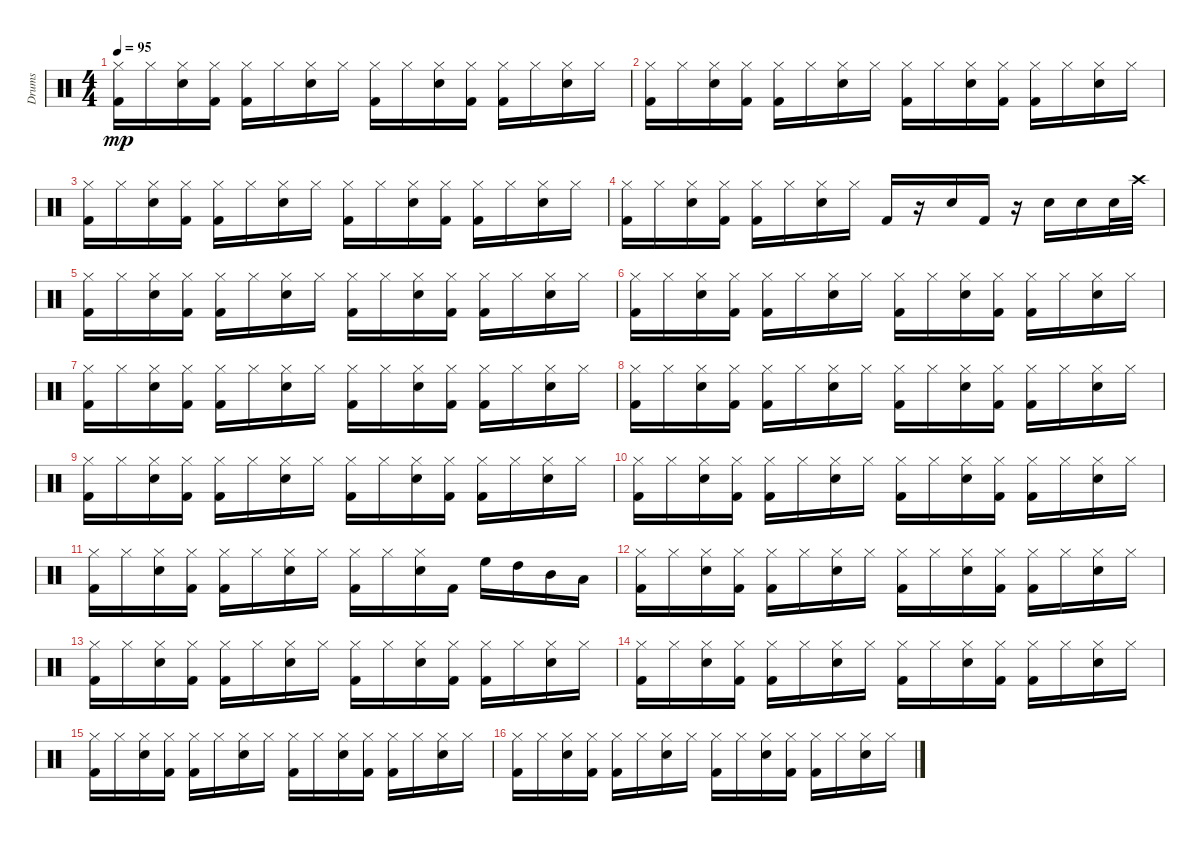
\track ("Drums" "Drums") {instrument percussion}
\staff {score}
\articulation defaults
\ts (4 4)
\tempo 95
\clef neutral
\ks c
("Kick (hit) 2" "Hi-Hat (closed)").16{dy mp} "Hi-Hat (closed)".16 ("Snare (hit) 2" "Hi-Hat (closed)").16 ("Kick (hit) 2" "Hi-Hat (closed)").16 ("Kick (hit) 2" "Hi-Hat (closed)").16 "Hi-Hat (closed)".16 ("Snare (hit) 2" "Hi-Hat (closed)").16 "Hi-Hat (closed)".16 ("Kick (hit) 2" "Hi-Hat (closed)").16 "Hi-Hat (closed)".16 ("Snare (hit) 2" "Hi-Hat (closed)").16 ("Kick (hit) 2" "Hi-Hat (closed)").16 ("Kick (hit) 2" "Hi-Hat (closed)").16 "Hi-Hat (closed)".16 ("Snare (hit) 2" "Hi-Hat (closed)").16 "Hi-Hat (closed)".16 |
("Kick (hit) 2" "Hi-Hat (closed)").16 "Hi-Hat (closed)".16 ("Snare (hit) 2" "Hi-Hat (closed)").16 ("Kick (hit) 2" "Hi-Hat (closed)").16 ("Kick (hit) 2" "Hi-Hat (closed)").16 "Hi-Hat (closed)".16 ("Snare (hit) 2" "Hi-Hat (closed)").16 "Hi-Hat (closed)".16 ("Kick (hit) 2" "Hi-Hat (closed)").16 "Hi-Hat (closed)".16 ("Snare (hit) 2" "Hi-Hat (closed)").16 ("Kick (hit) 2" "Hi-Hat (closed)").16 ("Kick (hit) 2" "Hi-Hat (closed)").16 "Hi-Hat (closed)".16 ("Snare (hit) 2" "Hi-Hat (closed)").16 "Hi-Hat (closed)".16 |
("Kick (hit) 2" "Hi-Hat (closed)").16 "Hi-Hat (closed)".16 ("Snare (hit) 2" "Hi-Hat (closed)").16 ("Kick (hit) 2" "Hi-Hat (closed)").16 ("Kick (hit) 2" "Hi-Hat (closed)").16 "Hi-Hat (closed)".16 ("Snare (hit) 2" "Hi-Hat (closed)").16 "Hi-Hat (closed)".16 ("Kick (hit) 2" "Hi-Hat (closed)").16 "Hi-Hat (closed)".16 ("Snare (hit) 2" "Hi-Hat (closed)").16 ("Kick (hit) 2" "Hi-Hat (closed)").16 ("Kick (hit) 2" "Hi-Hat (closed)").16 "Hi-Hat (closed)".16 ("Snare (hit) 2" "Hi-Hat (closed)").16 "Hi-Hat (closed)".16 |
("Kick (hit) 2" "Hi-Hat (closed)").16 "Hi-Hat (closed)".16 ("Snare (hit) 2" "Hi-Hat (closed)").16 ("Kick (hit) 2" "Hi-Hat (closed)").16 ("Kick (hit) 2" "Hi-Hat (closed)").16 "Hi-Hat (closed)".16 ("Snare (hit) 2" "Hi-Hat (closed)").16 "Hi-Hat (closed)".16 "Kick (hit) 2".16 r.16 "Snare (hit) 2".16 "Kick (hit) 2".16 r.16 "Snare (hit) 2".16 "Snare (hit) 2".16 "Snare (hit) 2".32 "Crash high (hit)".32 |
("Kick (hit) 2" "Hi-Hat (closed)").16 "Hi-Hat (closed)".16 ("Snare (hit) 2" "Hi-Hat (closed)").16 ("Kick (hit) 2" "Hi-Hat (closed)").16 ("Kick (hit) 2" "Hi-Hat (closed)").16 "Hi-Hat (closed)".16 ("Snare (hit) 2" "Hi-Hat (closed)").16 "Hi-Hat (closed)".16 ("Kick (hit) 2" "Hi-Hat (closed)").16 "Hi-Hat (closed)".16 ("Snare (hit) 2" "Hi-Hat (closed)").16 ("Kick (hit) 2" "Hi-Hat (closed)").16 ("Kick (hit) 2" "Hi-Hat (closed)").16 "Hi-Hat (closed)".16 ("Snare (hit) 2" "Hi-Hat (closed)").16 "Hi-Hat (closed)".16 |
("Kick (hit) 2" "Hi-Hat (closed)").16 "Hi-Hat (closed)".16 ("Snare (hit) 2" "Hi-Hat (closed)").16 ("Kick (hit) 2" "Hi-Hat (closed)").16 ("Kick (hit) 2" "Hi-Hat (closed)").16 "Hi-Hat (closed)".16 ("Snare (hit) 2" "Hi-Hat (closed)").16 "Hi-Hat (closed)".16 ("Kick (hit) 2" "Hi-Hat (closed)").16 "Hi-Hat (closed)".16 ("Snare (hit) 2" "Hi-Hat (closed)").16 ("Kick (hit) 2" "Hi-Hat (closed)").16 ("Kick (hit) 2" "Hi-Hat (closed)").16 "Hi-Hat (closed)".16 ("Snare (hit) 2" "Hi-Hat (closed)").16 "Hi-Hat (closed)".16 |
("Kick (hit) 2" "Hi-Hat (closed)").16 "Hi-Hat (closed)".16 ("Snare (hit) 2" "Hi-Hat (closed)").16 ("Kick (hit) 2" "Hi-Hat (closed)").16 ("Kick (hit) 2" "Hi-Hat (closed)").16 "Hi-Hat (closed)".16 ("Snare (hit) 2" "Hi-Hat (closed)").16 "Hi-Hat (closed)".16 ("Kick (hit) 2" "Hi-Hat (closed)").16 "Hi-Hat (closed)".16 ("Snare (hit) 2" "Hi-Hat (closed)").16 ("Kick (hit) 2" "Hi-Hat (closed)").16 ("Kick (hit) 2" "Hi-Hat (closed)").16 "Hi-Hat (closed)".16 ("Snare (hit) 2" "Hi-Hat (closed)").16 "Hi-Hat (closed)".16 |
("Kick (hit) 2" "Hi-Hat (closed)").16 "Hi-Hat (closed)".16 ("Snare (hit) 2" "Hi-Hat (closed)").16 ("Kick (hit) 2" "Hi-Hat (closed)").16 ("Kick (hit) 2" "Hi-Hat (closed)").16 "Hi-Hat (closed)".16 ("Snare (hit) 2" "Hi-Hat (closed)").16 "Hi-Hat (closed)".16 ("Kick (hit) 2" "Hi-Hat (closed)").16 "Hi-Hat (closed)".16 ("Snare (hit) 2" "Hi-Hat (closed)").16 ("Kick (hit) 2" "Hi-Hat (closed)").16 ("Kick (hit) 2" "Hi-Hat (closed)").16 "Hi-Hat (closed)".16 ("Snare (hit) 2" "Hi-Hat (closed)").16 "Hi-Hat (closed)".16 |
("Kick (hit) 2" "Hi-Hat (closed)").16 "Hi-Hat (closed)".16 ("Snare (hit) 2" "Hi-Hat (closed)").16 ("Kick (hit) 2" "Hi-Hat (closed)").16 ("Kick (hit) 2" "Hi-Hat (closed)").16 "Hi-Hat (closed)".16 ("Snare (hit) 2" "Hi-Hat (closed)").16 "Hi-Hat (closed)".16 ("Kick (hit) 2" "Hi-Hat (closed)").16 "Hi-Hat (closed)".16 ("Snare (hit) 2" "Hi-Hat (closed)").16 ("Kick (hit) 2" "Hi-Hat (closed)").16 ("Kick (hit) 2" "Hi-Hat (closed)").16 "Hi-Hat (closed)".16 ("Snare (hit) 2" "Hi-Hat (closed)").16 "Hi-Hat (closed)".16 |
("Kick (hit) 2" "Hi-Hat (closed)").16 "Hi-Hat (closed)".16 ("Snare (hit) 2" "Hi-Hat (closed)").16 ("Kick (hit) 2" "Hi-Hat (closed)").16 ("Kick (hit) 2" "Hi-Hat (closed)").16 "Hi-Hat (closed)".16 ("Snare (hit) 2" "Hi-Hat (closed)").16 "Hi-Hat (closed)".16 ("Kick (hit) 2" "Hi-Hat (closed)").16 "Hi-Hat (closed)".16 ("Snare (hit) 2" "Hi-Hat (closed)").16 ("Kick (hit) 2" "Hi-Hat (closed)").16 ("Kick (hit) 2" "Hi-Hat (closed)").16 "Hi-Hat (closed)".16 ("Snare (hit) 2" "Hi-Hat (closed)").16 "Hi-Hat (closed)".16 |
("Kick (hit) 2" "Hi-Hat (closed)").16 "Hi-Hat (closed)".16 ("Snare (hit) 2" "Hi-Hat (closed)").16 ("Kick (hit) 2" "Hi-Hat (closed)").16 ("Kick (hit) 2" "Hi-Hat (closed)").16 "Hi-Hat (closed)".16 ("Snare (hit) 2" "Hi-Hat (closed)").16 "Hi-Hat (closed)".16 ("Kick (hit) 2" "Hi-Hat (closed)").16 "Hi-Hat (closed)".16 ("Snare (hit) 2" "Hi-Hat (closed)").16 "Kick (hit) 2".16 "High Floor Tom (hit)".16 "High Tom (hit)".16 "Mid Tom (hit)".16 "Low Tom (hit)".16 |
("Kick (hit) 2" "Hi-Hat (closed)").16 "Hi-Hat (closed)".16 ("Snare (hit) 2" "Hi-Hat (closed)").16 ("Kick (hit) 2" "Hi-Hat (closed)").16 ("Kick (hit) 2" "Hi-Hat (closed)").16 "Hi-Hat (closed)".16 ("Snare (hit) 2" "Hi-Hat (closed)").16 "Hi-Hat (closed)".16 ("Kick (hit) 2" "Hi-Hat (closed)").16 "Hi-Hat (closed)".16 ("Snare (hit) 2" "Hi-Hat (closed)").16 ("Kick (hit) 2" "Hi-Hat (closed)").16 ("Kick (hit) 2" "Hi-Hat (closed)").16 "Hi-Hat (closed)".16 ("Snare (hit) 2" "Hi-Hat (closed)").16 "Hi-Hat (closed)".16 |
("Kick (hit) 2" "Hi-Hat (closed)").16 "Hi-Hat (closed)".16 ("Snare (hit) 2" "Hi-Hat (closed)").16 ("Kick (hit) 2" "Hi-Hat (closed)").16 ("Kick (hit) 2" "Hi-Hat (closed)").16 "Hi-Hat (closed)".16 ("Snare (hit) 2" "Hi-Hat (closed)").16 "Hi-Hat (closed)".16 ("Kick (hit) 2" "Hi-Hat (closed)").16 "Hi-Hat (closed)".16 ("Snare (hit) 2" "Hi-Hat (closed)").16 ("Kick (hit) 2" "Hi-Hat (closed)").16 ("Kick (hit) 2" "Hi-Hat (closed)").16 "Hi-Hat (closed)".16 ("Snare (hit) 2" "Hi-Hat (closed)").16 "Hi-Hat (closed)".16 |
("Kick (hit) 2" "Hi-Hat (closed)").16 "Hi-Hat (closed)".16 ("Snare (hit) 2" "Hi-Hat (closed)").16 ("Kick (hit) 2" "Hi-Hat (closed)").16 ("Kick (hit) 2" "Hi-Hat (closed)").16 "Hi-Hat (closed)".16 ("Snare (hit) 2" "Hi-Hat (closed)").16 "Hi-Hat (closed)".16 ("Kick (hit) 2" "Hi-Hat (closed)").16 "Hi-Hat (closed)".16 ("Snare (hit) 2" "Hi-Hat (closed)").16 ("Kick (hit) 2" "Hi-Hat (closed)").16 ("Kick (hit) 2" "Hi-Hat (closed)").16 "Hi-Hat (closed)".16 ("Snare (hit) 2" "Hi-Hat (closed)").16 "Hi-Hat (closed)".16 |
("Kick (hit) 2" "Hi-Hat (closed)").16 "Hi-Hat (closed)".16 ("Snare (hit) 2" "Hi-Hat (closed)").16 ("Kick (hit) 2" "Hi-Hat (closed)").16 ("Kick (hit) 2" "Hi-Hat (closed)").16 "Hi-Hat (closed)".16 ("Snare (hit) 2" "Hi-Hat (closed)").16 "Hi-Hat (closed)".16 ("Kick (hit) 2" "Hi-Hat (closed)").16 "Hi-Hat (closed)".16 ("Snare (hit) 2" "Hi-Hat (closed)").16 ("Kick (hit) 2" "Hi-Hat (closed)").16 ("Kick (hit) 2" "Hi-Hat (closed)").16 "Hi-Hat (closed)".16 ("Snare (hit) 2" "Hi-Hat (closed)").16 "Hi-Hat (closed)".16 |
("Kick (hit) 2" "Hi-Hat (closed)").16 "Hi-Hat (closed)".16 ("Snare (hit) 2" "Hi-Hat (closed)").16 ("Kick (hit) 2" "Hi-Hat (closed)").16 ("Kick (hit) 2" "Hi-Hat (closed)").16 "Hi-Hat (closed)".16 ("Snare (hit) 2" "Hi-Hat (closed)").16 "Hi-Hat (closed)".16 ("Kick (hit) 2" "Hi-Hat (closed)").16 "Hi-Hat (closed)".16 ("Snare (hit) 2" "Hi-Hat (closed)").16 ("Kick (hit) 2" "Hi-Hat (closed)").16 ("Kick (hit) 2" "Hi-Hat (closed)").16 "Hi-Hat (closed)".16 ("Snare (hit) 2" "Hi-Hat (closed)").16 "Hi-Hat (closed)".16
